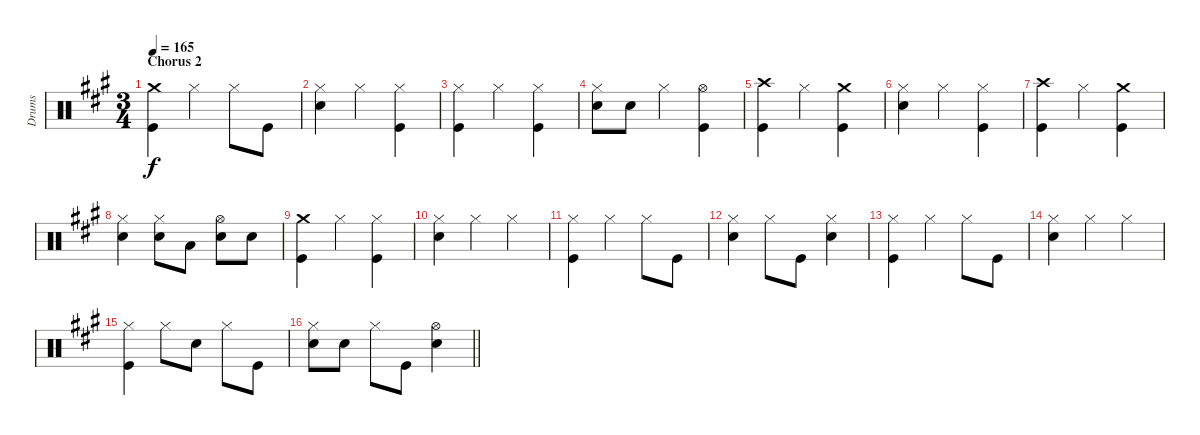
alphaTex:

\track ("Drums" "Drums") {instrument percussion}
\staff {score}
\articulation defaults
\ts (3 4)
\section ("" "Chorus 2")
\tempo 165
\clef neutral
\ks a
("Crash medium (hit)" "Kick (hit)").4{dy f} "Hi-Hat (closed)".4 "Hi-Hat (closed)".8 "Kick (hit)".8 |
("Hi-Hat (closed)" "Snare (hit) 2").4 "Hi-Hat (closed)".4 ("Hi-Hat (closed)" "Kick (hit)").4 |
("Hi-Hat (closed)" "Kick (hit)").4 "Hi-Hat (closed)".4 ("Hi-Hat (closed)" "Kick (hit)").4 |
("Hi-Hat (closed)" "Snare (hit) 2").8 "Snare (hit) 2".8 "Hi-Hat (closed)".4 ("Hi-Hat (open)" "Kick (hit)").4 |
("Crash high (hit)" "Kick (hit)").4 "Hi-Hat (closed)".4 ("Crash medium (hit)" "Kick (hit)").4 |
("Hi-Hat (closed)" "Snare (hit) 2").4 "Hi-Hat (closed)".4 ("Hi-Hat (closed)" "Kick (hit)").4 |
("Crash high (hit)" "Kick (hit)").4 "Hi-Hat (closed)".4 ("Crash medium (hit)" "Kick (hit)").4 |
("Hi-Hat (closed)" "Snare (hit) 2").4 ("Hi-Hat (closed)" "Snare (hit) 2").8 "Low Tom (hit)".8 ("Hi-Hat (open)" "Snare (hit) 2").8 "Snare (hit) 2".8 |
("Crash medium (hit)" "Kick (hit)").4 "Hi-Hat (closed)".4 ("Hi-Hat (closed)" "Kick (hit)").4 |
("Hi-Hat (closed)" "Snare (hit) 2").4 "Hi-Hat (closed)".4 "Hi-Hat (closed)".4 |
("Hi-Hat (closed)" "Kick (hit)").4 "Hi-Hat (closed)".4 "Hi-Hat (closed)".8 "Kick (hit)".8 |
("Hi-Hat (closed)" "Snare (hit) 2").4 "Hi-Hat (closed)".8 "Kick (hit)".8 ("Hi-Hat (closed)" "Snare (hit) 2").4 |
("Hi-Hat (closed)" "Kick (hit)").4 "Hi-Hat (closed)".4 "Hi-Hat (closed)".8 "Kick (hit)".8 |
("Hi-Hat (closed)" "Snare (hit) 2").4 "Hi-Hat (closed)".4 "Hi-Hat (closed)".4 |
("Hi-Hat (closed)" "Kick (hit)").4 "Hi-Hat (closed)".8 "Snare (hit) 2".8 "Hi-Hat (closed)".8 "Kick (hit)".8 |
\barLineRight lightlight
("Hi-Hat (closed)" "Snare (hit) 2").8 "Snare (hit) 2".8 "Hi-Hat (closed)".8 "Kick (hit)".8 ("Hi-Hat (open)" "Snare (hit) 2").4
